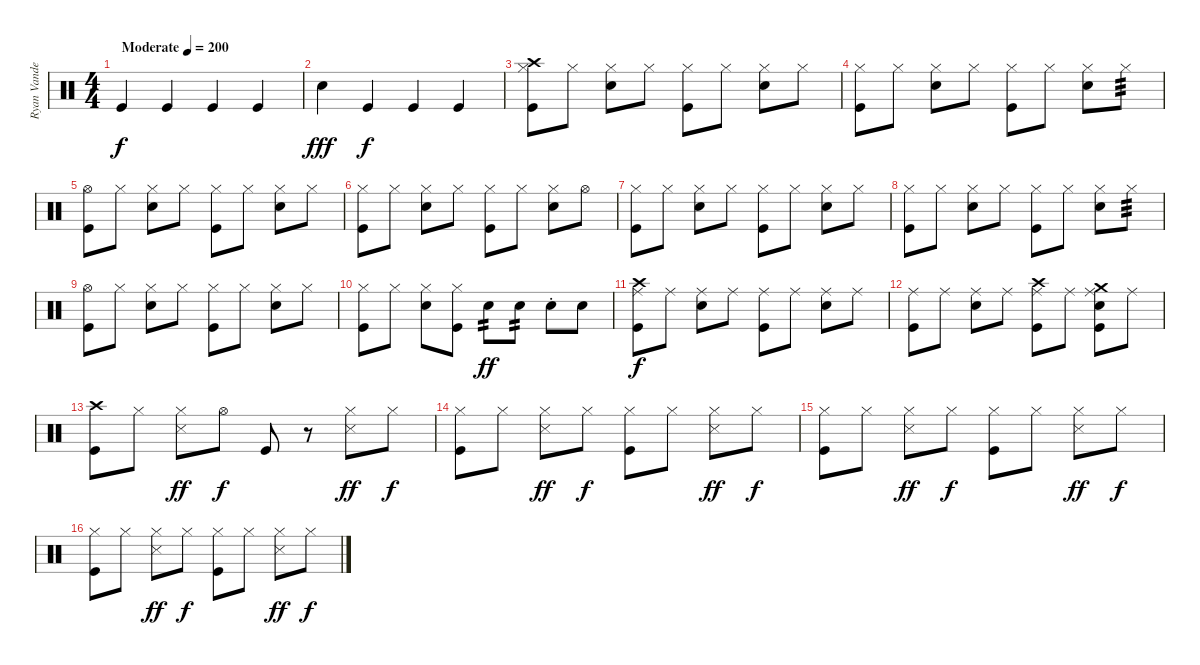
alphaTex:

\track ("Ryan Vandebergh" "Ryan Vande") {instrument percussion}
\staff {score}
\articulation defaults
\ts (4 4)
\tempo (200 "Moderate")
\clef neutral
\ks c "Kick (hit)".4{dy f} "Kick (hit)".4 "Kick (hit)".4 "Kick (hit)".4
|
"Electric Snare (hit)".4{dy fff} "Kick (hit)".4{dy f} "Kick (hit)".4 "Kick (hit)".4 |
("Crash high (hit)" "Hi-Hat (closed)" "Kick (hit)").8 "Hi-Hat (closed)".8 ("Hi-Hat (closed)" "Electric Snare (hit)").8 "Hi-Hat (closed)".8 ("Hi-Hat (closed)" "Kick (hit)").8 "Hi-Hat (closed)".8 ("Hi-Hat (closed)" "Electric Snare (hit)").8 "Hi-Hat (closed)".8 |
("Hi-Hat (closed)" "Kick (hit)").8 "Hi-Hat (closed)".8 ("Hi-Hat (closed)" "Electric Snare (hit)").8 "Hi-Hat (closed)".8 ("Hi-Hat (closed)" "Kick (hit)").8 "Hi-Hat (closed)".8 ("Hi-Hat (closed)" "Electric Snare (hit)").8 "Hi-Hat (closed)".8{tp 3} |
("Hi-Hat (open)" "Kick (hit)").8 "Hi-Hat (closed)".8 ("Hi-Hat (closed)" "Electric Snare (hit)").8 "Hi-Hat (closed)".8 ("Hi-Hat (closed)" "Kick (hit)").8 "Hi-Hat (closed)".8 ("Hi-Hat (closed)" "Electric Snare (hit)").8 "Hi-Hat (closed)".8 |
("Hi-Hat (closed)" "Kick (hit)").8 "Hi-Hat (closed)".8 ("Hi-Hat (closed)" "Electric Snare (hit)").8 "Hi-Hat (closed)".8 ("Hi-Hat (closed)" "Kick (hit)").8 "Hi-Hat (closed)".8 ("Hi-Hat (closed)" "Electric Snare (hit)").8 "Hi-Hat (open)".8 |
("Hi-Hat (closed)" "Kick (hit)").8 "Hi-Hat (closed)".8 ("Hi-Hat (closed)" "Electric Snare (hit)").8 "Hi-Hat (closed)".8 ("Hi-Hat (closed)" "Kick (hit)").8 "Hi-Hat (closed)".8 ("Hi-Hat (closed)" "Electric Snare (hit)").8 "Hi-Hat (closed)".8 |
("Hi-Hat (closed)" "Kick (hit)").8 "Hi-Hat (closed)".8 ("Hi-Hat (closed)" "Electric Snare (hit)").8 "Hi-Hat (closed)".8 ("Hi-Hat (closed)" "Kick (hit)").8 "Hi-Hat (closed)".8 ("Hi-Hat (closed)" "Electric Snare (hit)").8 "Hi-Hat (closed)".8{tp 3} |
("Hi-Hat (open)" "Kick (hit)").8 "Hi-Hat (closed)".8 ("Hi-Hat (closed)" "Electric Snare (hit)").8 "Hi-Hat (closed)".8 ("Hi-Hat (closed)" "Kick (hit)").8 "Hi-Hat (closed)".8 ("Hi-Hat (closed)" "Electric Snare (hit)").8 "Hi-Hat (closed)".8 |
("Hi-Hat (closed)" "Kick (hit)").8 "Hi-Hat (closed)".8 ("Hi-Hat (closed)" "Electric Snare (hit)").8 ("Hi-Hat (closed)" "Kick (hit)").8 "Electric Snare (hit)".8{tp 2 dy ff} "Electric Snare (hit)".8{tp 2} "Electric Snare (hit)"{st}.8 "Electric Snare (hit)".8 |
("Crash high (hit)" "Ride (middle)" "Kick (hit)").8{dy f} "Ride (middle)".8 ("Ride (middle)" "Electric Snare (hit)").8 "Ride (middle)".8 ("Ride (middle)" "Kick (hit)").8 "Ride (middle)".8 ("Ride (middle)" "Electric Snare (hit)").8 "Ride (middle)".8 |
("Ride (middle)" "Kick (hit)").8 "Ride (middle)".8 ("Ride (middle)" "Electric Snare (hit)").8 "Ride (middle)".8 ("Crash high (hit)" "Ride (middle)" "Kick (hit)").8 "Ride (middle)".8 ("Crash medium (hit)" "Ride (middle)" "Electric Snare (hit)" "Kick (hit)").8 "Ride (middle)".8 |
("Crash high (hit)" "Kick (hit)").8 "Hi-Hat (closed)".8 ("Hi-Hat (closed)" "Snare (side stick) 3").8{dy ff} "Hi-Hat (open)".8{dy f} "Kick (hit)".8 r.8 ("Hi-Hat (closed)" "Snare (side stick) 3").8{dy ff} "Hi-Hat (closed)".8{dy f} |
("Hi-Hat (closed)" "Kick (hit)").8 "Hi-Hat (closed)".8 ("Hi-Hat (closed)" "Snare (side stick) 3").8{dy ff} "Hi-Hat (closed)".8{dy f} ("Hi-Hat (closed)" "Kick (hit)").8 "Hi-Hat (closed)".8 ("Hi-Hat (closed)" "Snare (side stick) 3").8{dy ff} "Hi-Hat (closed)".8{dy f} |
("Hi-Hat (closed)" "Kick (hit)").8 "Hi-Hat (closed)".8 ("Hi-Hat (closed)" "Snare (side stick) 3").8{dy ff} "Hi-Hat (closed)".8{dy f} ("Hi-Hat (closed)" "Kick (hit)").8 "Hi-Hat (closed)".8 ("Hi-Hat (closed)" "Snare (side stick) 3").8{dy ff} "Hi-Hat (closed)".8{dy f} |
("Hi-Hat (closed)" "Kick (hit)").8 "Hi-Hat (closed)".8 ("Hi-Hat (closed)" "Snare (side stick) 3").8{dy ff} "Hi-Hat (closed)".8{dy f} ("Hi-Hat (closed)" "Kick (hit)").8 "Hi-Hat (closed)".8 ("Hi-Hat (closed)" "Snare (side stick) 3").8{dy ff} "Hi-Hat (closed)".8{dy f}
